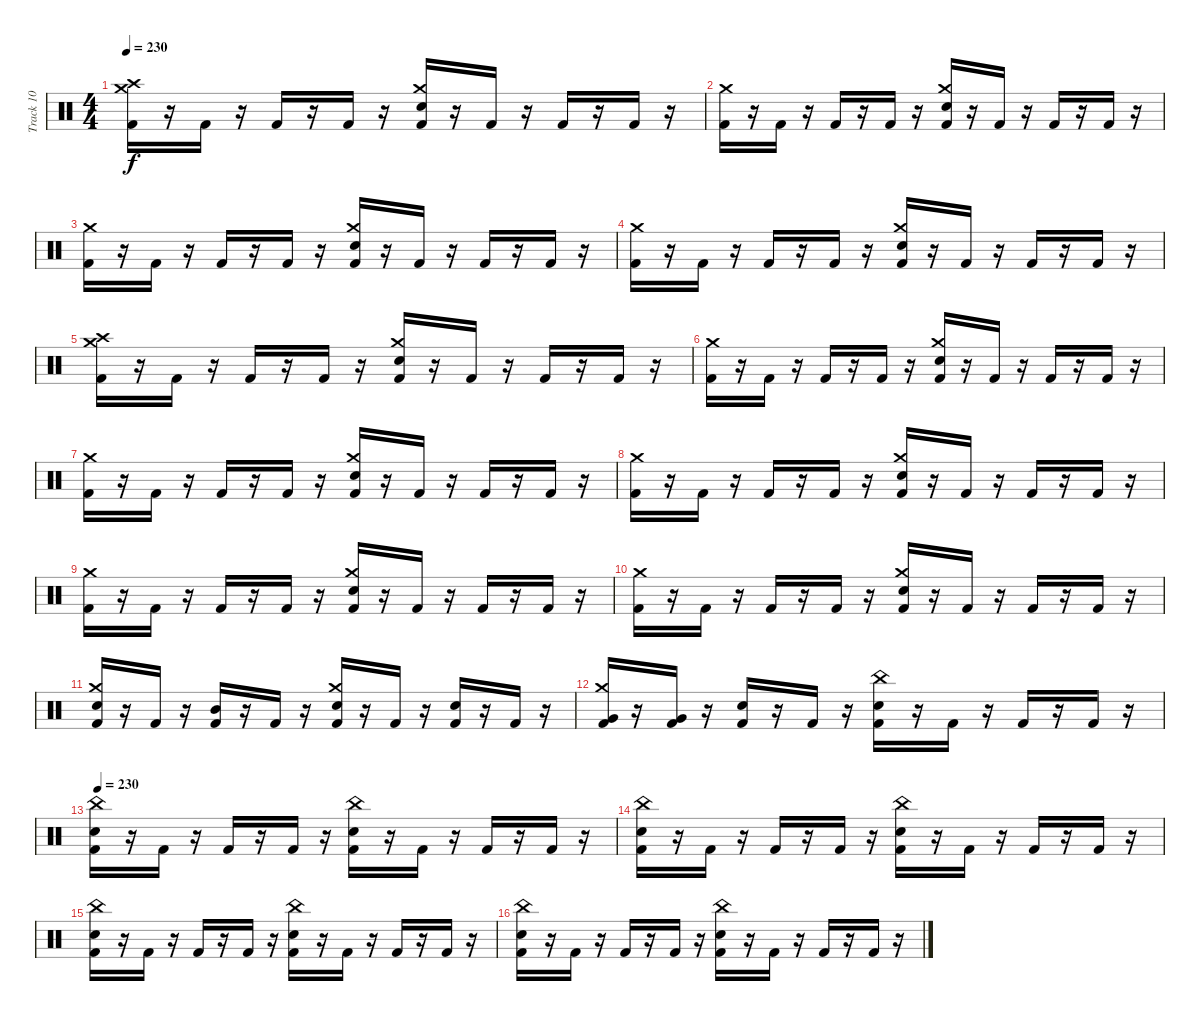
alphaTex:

\track ("Track 10" "Track 10") {instrument percussion}
\staff {score}
\articulation defaults
\ts (4 4)
\tempo 230
\clef neutral
\ks c
("Kick (hit) 2" "Crash high (hit)" "Crash medium (hit)").16{dy f} r.16 "Kick (hit) 2".16 r.16 "Kick (hit) 2".16 r.16 "Kick (hit) 2".16 r.16 ("Kick (hit) 2" "Snare (hit) 2" "Crash medium (hit)").16 r.16 "Kick (hit) 2".16 r.16 "Kick (hit) 2".16 r.16 "Kick (hit) 2".16 r.16 |
("Kick (hit) 2" "Crash medium (hit)").16 r.16 "Kick (hit) 2".16 r.16 "Kick (hit) 2".16 r.16 "Kick (hit) 2".16 r.16 ("Kick (hit) 2" "Snare (hit) 2" "Crash medium (hit)").16 r.16 "Kick (hit) 2".16 r.16 "Kick (hit) 2".16 r.16 "Kick (hit) 2".16 r.16 |
("Kick (hit) 2" "Crash medium (hit)").16 r.16 "Kick (hit) 2".16 r.16 "Kick (hit) 2".16 r.16 "Kick (hit) 2".16 r.16 ("Kick (hit) 2" "Snare (hit) 2" "Crash medium (hit)").16 r.16 "Kick (hit) 2".16 r.16 "Kick (hit) 2".16 r.16 "Kick (hit) 2".16 r.16 |
("Kick (hit) 2" "Crash medium (hit)").16 r.16 "Kick (hit) 2".16 r.16 "Kick (hit) 2".16 r.16 "Kick (hit) 2".16 r.16 ("Kick (hit) 2" "Snare (hit) 2" "Crash medium (hit)").16 r.16 "Kick (hit) 2".16 r.16 "Kick (hit) 2".16 r.16 "Kick (hit) 2".16 r.16 |
("Kick (hit) 2" "Crash high (hit)" "Crash medium (hit)").16 r.16 "Kick (hit) 2".16 r.16 "Kick (hit) 2".16 r.16 "Kick (hit) 2".16 r.16 ("Kick (hit) 2" "Snare (hit) 2" "Crash medium (hit)").16 r.16 "Kick (hit) 2".16 r.16 "Kick (hit) 2".16 r.16 "Kick (hit) 2".16 r.16 |
("Kick (hit) 2" "Crash medium (hit)").16 r.16 "Kick (hit) 2".16 r.16 "Kick (hit) 2".16 r.16 "Kick (hit) 2".16 r.16 ("Kick (hit) 2" "Snare (hit) 2" "Crash medium (hit)").16 r.16 "Kick (hit) 2".16 r.16 "Kick (hit) 2".16 r.16 "Kick (hit) 2".16 r.16 |
("Kick (hit) 2" "Crash medium (hit)").16 r.16 "Kick (hit) 2".16 r.16 "Kick (hit) 2".16 r.16 "Kick (hit) 2".16 r.16 ("Kick (hit) 2" "Snare (hit) 2" "Crash medium (hit)").16 r.16 "Kick (hit) 2".16 r.16 "Kick (hit) 2".16 r.16 "Kick (hit) 2".16 r.16 |
("Kick (hit) 2" "Crash medium (hit)").16 r.16 "Kick (hit) 2".16 r.16 "Kick (hit) 2".16 r.16 "Kick (hit) 2".16 r.16 ("Kick (hit) 2" "Snare (hit) 2" "Crash medium (hit)").16 r.16 "Kick (hit) 2".16 r.16 "Kick (hit) 2".16 r.16 "Kick (hit) 2".16 r.16 |
("Kick (hit) 2" "Crash medium (hit)").16 r.16 "Kick (hit) 2".16 r.16 "Kick (hit) 2".16 r.16 "Kick (hit) 2".16 r.16 ("Kick (hit) 2" "Snare (hit) 2" "Crash medium (hit)").16 r.16 "Kick (hit) 2".16 r.16 "Kick (hit) 2".16 r.16 "Kick (hit) 2".16 r.16 |
("Kick (hit) 2" "Crash medium (hit)").16 r.16 "Kick (hit) 2".16 r.16 "Kick (hit) 2".16 r.16 "Kick (hit) 2".16 r.16 ("Kick (hit) 2" "Snare (hit) 2" "Crash medium (hit)").16 r.16 "Kick (hit) 2".16 r.16 "Kick (hit) 2".16 r.16 "Kick (hit) 2".16 r.16 |
("Kick (hit) 2" "Snare (hit) 2" "Crash medium (hit)").16 r.16 "Kick (hit) 2".16 r.16 ("Kick (hit) 2" "Mid Tom (hit)").16 r.16 "Kick (hit) 2".16 r.16 ("Kick (hit) 2" "Snare (hit) 2" "Crash medium (hit)").16 r.16 "Kick (hit) 2".16 r.16 ("Kick (hit) 2" "Snare (hit) 2").16 r.16 "Kick (hit) 2".16 r.16 |
("Kick (hit) 2" "Very Low Tom (hit)" "Crash medium (hit)").16 r.16 ("Kick (hit) 2" "Very Low Tom (hit)").16 r.16 ("Kick (hit) 2" "Snare (hit) 2").16 r.16 "Kick (hit) 2".16 r.16 ("Kick (hit) 2" "Snare (hit) 2" "China (hit)").16 r.16 "Kick (hit) 2".16 r.16 "Kick (hit) 2".16 r.16 "Kick (hit) 2".16 r.16 |
\tempo 230
("Kick (hit) 2" "Snare (hit) 2" "China (hit)").16 r.16 "Kick (hit) 2".16 r.16 "Kick (hit) 2".16 r.16 "Kick (hit) 2".16 r.16 ("Kick (hit) 2" "Snare (hit) 2" "China (hit)").16 r.16 "Kick (hit) 2".16 r.16 "Kick (hit) 2".16 r.16 "Kick (hit) 2".16 r.16 |
("Kick (hit) 2" "Snare (hit) 2" "China (hit)").16 r.16 "Kick (hit) 2".16 r.16 "Kick (hit) 2".16 r.16 "Kick (hit) 2".16 r.16 ("Kick (hit) 2" "Snare (hit) 2" "China (hit)").16 r.16 "Kick (hit) 2".16 r.16 "Kick (hit) 2".16 r.16 "Kick (hit) 2".16 r.16 |
("Kick (hit) 2" "Snare (hit) 2" "China (hit)").16 r.16 "Kick (hit) 2".16 r.16 "Kick (hit) 2".16 r.16 "Kick (hit) 2".16 r.16 ("Kick (hit) 2" "Snare (hit) 2" "China (hit)").16 r.16 "Kick (hit) 2".16 r.16 "Kick (hit) 2".16 r.16 "Kick (hit) 2".16 r.16 |
("Kick (hit) 2" "Snare (hit) 2" "China (hit)").16 r.16 "Kick (hit) 2".16 r.16 "Kick (hit) 2".16 r.16 "Kick (hit) 2".16 r.16 ("Kick (hit) 2" "Snare (hit) 2" "China (hit)").16 r.16 "Kick (hit) 2".16 r.16 "Kick (hit) 2".16 r.16 "Kick (hit) 2".16 r.16
